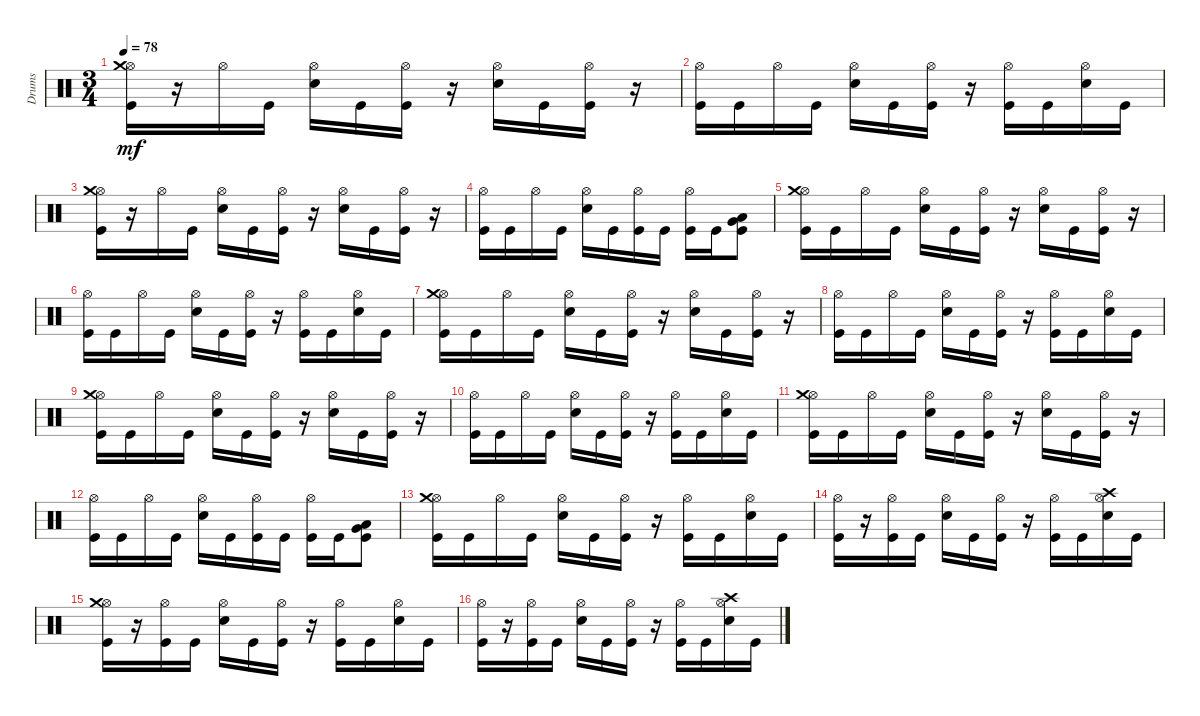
\track ("Drums" "Drums") {instrument percussion}
\staff {score}
\articulation defaults
\ts (3 4)
\tempo 78
\clef neutral
\ks c
("Hi-Hat (open)" "Crash medium (hit)" "Kick (hit)").16{dy mf} r.16 "Hi-Hat (open)".16 "Kick (hit)".16 ("Hi-Hat (open)" "Snare (hit) 2").16 "Kick (hit)".16 ("Hi-Hat (open)" "Kick (hit)").16 r.16 ("Hi-Hat (open)" "Snare (hit) 2").16 "Kick (hit)".16 ("Hi-Hat (open)" "Kick (hit)").16 r.16 |
("Hi-Hat (open)" "Kick (hit)").16 "Kick (hit)".16 "Hi-Hat (open)".16 "Kick (hit)".16 ("Hi-Hat (open)" "Snare (hit) 2").16 "Kick (hit)".16 ("Hi-Hat (open)" "Kick (hit)").16 r.16 ("Hi-Hat (open)" "Kick (hit)").16 "Kick (hit)".16 ("Hi-Hat (open)" "Snare (hit) 2").16 "Kick (hit)".16 |
("Hi-Hat (open)" "Kick (hit)" "Crash medium (hit)").16 r.16 "Hi-Hat (open)".16 "Kick (hit)".16 ("Hi-Hat (open)" "Snare (hit) 2").16 "Kick (hit)".16 ("Kick (hit)" "Hi-Hat (open)").16 r.16 ("Hi-Hat (open)" "Snare (hit) 2").16 "Kick (hit)".16 ("Kick (hit)" "Hi-Hat (open)").16 r.16 |
("Kick (hit)" "Hi-Hat (open)").16 "Kick (hit)".16 "Hi-Hat (open)".16 "Kick (hit)".16 ("Snare (hit) 2" "Hi-Hat (open)").16 "Kick (hit)".16 ("Kick (hit)" "Hi-Hat (open)").16 "Kick (hit)".16 ("Kick (hit)" "Hi-Hat (open)").16 "Kick (hit)".16 ("Low Floor Tom (hit)" "Very Low Tom (hit)" "Kick (hit)").8 |
("Hi-Hat (open)" "Crash medium (hit)" "Kick (hit)").16 "Kick (hit)".16 "Hi-Hat (open)".16 "Kick (hit)".16 ("Hi-Hat (open)" "Snare (hit) 2").16 "Kick (hit)".16 ("Hi-Hat (open)" "Kick (hit)").16 r.16 ("Hi-Hat (open)" "Snare (hit) 2").16 "Kick (hit)".16 ("Hi-Hat (open)" "Kick (hit)").16 r.16 |
("Hi-Hat (open)" "Kick (hit)").16 "Kick (hit)".16 "Hi-Hat (open)".16 "Kick (hit)".16 ("Hi-Hat (open)" "Snare (hit) 2").16 "Kick (hit)".16 ("Hi-Hat (open)" "Kick (hit)").16 r.16 ("Hi-Hat (open)" "Kick (hit)").16 "Kick (hit)".16 ("Hi-Hat (open)" "Snare (hit) 2").16 "Kick (hit)".16 |
("Hi-Hat (open)" "Crash medium (hit)" "Kick (hit)").16 "Kick (hit)".16 "Hi-Hat (open)".16 "Kick (hit)".16 ("Hi-Hat (open)" "Snare (hit) 2").16 "Kick (hit)".16 ("Hi-Hat (open)" "Kick (hit)").16 r.16 ("Hi-Hat (open)" "Snare (hit) 2").16 "Kick (hit)".16 ("Hi-Hat (open)" "Kick (hit)").16 r.16 |
("Hi-Hat (open)" "Kick (hit)").16 "Kick (hit)".16 "Hi-Hat (open)".16 "Kick (hit)".16 ("Hi-Hat (open)" "Snare (hit) 2").16 "Kick (hit)".16 ("Hi-Hat (open)" "Kick (hit)").16 r.16 ("Hi-Hat (open)" "Kick (hit)").16 "Kick (hit)".16 ("Hi-Hat (open)" "Snare (hit) 2").16 "Kick (hit)".16 |
("Hi-Hat (open)" "Crash medium (hit)" "Kick (hit)").16 "Kick (hit)".16 "Hi-Hat (open)".16 "Kick (hit)".16 ("Hi-Hat (open)" "Snare (hit) 2").16 "Kick (hit)".16 ("Hi-Hat (open)" "Kick (hit)").16 r.16 ("Hi-Hat (open)" "Snare (hit) 2").16 "Kick (hit)".16 ("Hi-Hat (open)" "Kick (hit)").16 r.16 |
("Hi-Hat (open)" "Kick (hit)").16 "Kick (hit)".16 "Hi-Hat (open)".16 "Kick (hit)".16 ("Hi-Hat (open)" "Snare (hit) 2").16 "Kick (hit)".16 ("Hi-Hat (open)" "Kick (hit)").16 r.16 ("Hi-Hat (open)" "Kick (hit)").16 "Kick (hit)".16 ("Hi-Hat (open)" "Snare (hit) 2").16 "Kick (hit)".16 |
("Hi-Hat (open)" "Crash medium (hit)" "Kick (hit)").16 "Kick (hit)".16 "Hi-Hat (open)".16 "Kick (hit)".16 ("Hi-Hat (open)" "Snare (hit) 2").16 "Kick (hit)".16 ("Hi-Hat (open)" "Kick (hit)").16 r.16 ("Hi-Hat (open)" "Snare (hit) 2").16 "Kick (hit)".16 ("Hi-Hat (open)" "Kick (hit)").16 r.16 |
("Hi-Hat (open)" "Kick (hit)").16 "Kick (hit)".16 "Hi-Hat (open)".16 "Kick (hit)".16 ("Snare (hit) 2" "Hi-Hat (open)").16 "Kick (hit)".16 ("Kick (hit)" "Hi-Hat (open)").16 "Kick (hit)".16 ("Kick (hit)" "Hi-Hat (open)").16 "Kick (hit)".16 ("Low Floor Tom (hit)" "Very Low Tom (hit)" "Kick (hit)").8 |
("Kick (hit)" "Hi-Hat (open)" "Crash medium (hit)").16 "Kick (hit)".16 "Hi-Hat (open)".16 "Kick (hit)".16 ("Snare (hit) 2" "Hi-Hat (open)").16 "Kick (hit)".16 ("Kick (hit)" "Hi-Hat (open)").16 r.16 ("Kick (hit)" "Hi-Hat (open)").16 "Kick (hit)".16 ("Snare (hit) 2" "Hi-Hat (open)").16 "Kick (hit)".16 |
("Kick (hit)" "Hi-Hat (open)").16 r.16 ("Kick (hit)" "Hi-Hat (open)").16 "Kick (hit)".16 ("Snare (hit) 2" "Hi-Hat (open)").16 "Kick (hit)".16 ("Kick (hit)" "Hi-Hat (open)").16 r.16 ("Kick (hit)" "Hi-Hat (open)").16 "Kick (hit)".16 ("Snare (hit) 2" "Hi-Hat (open)" "Crash high (hit)").16 "Kick (hit)".16 |
("Kick (hit)" "Hi-Hat (open)" "Crash medium (hit)").16 r.16 ("Kick (hit)" "Hi-Hat (open)").16 "Kick (hit)".16 ("Snare (hit) 2" "Hi-Hat (open)").16 "Kick (hit)".16 ("Kick (hit)" "Hi-Hat (open)").16 r.16 ("Kick (hit)" "Hi-Hat (open)").16 "Kick (hit)".16 ("Snare (hit) 2" "Hi-Hat (open)").16 "Kick (hit)".16 |
("Kick (hit)" "Hi-Hat (open)").16 r.16 ("Kick (hit)" "Hi-Hat (open)").16 "Kick (hit)".16 ("Snare (hit) 2" "Hi-Hat (open)").16 "Kick (hit)".16 ("Kick (hit)" "Hi-Hat (open)").16 r.16 ("Hi-Hat (open)" "Kick (hit)").16 "Kick (hit)".16 ("Hi-Hat (open)" "Snare (hit) 2" "Crash high (hit)").16 "Kick (hit)".16
